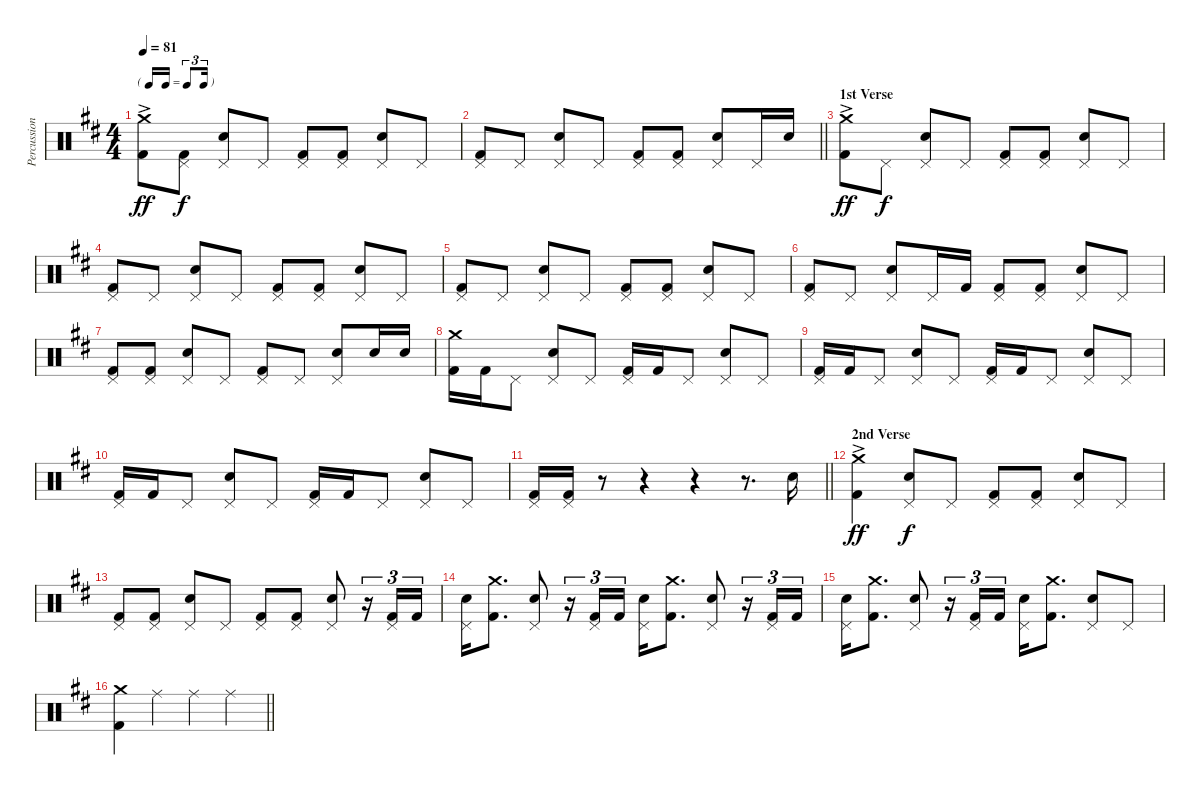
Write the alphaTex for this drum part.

\track ("Percussion" "Percussion") {instrument percussion}
\staff {score}
\articulation defaults
\ts (4 4)
\tf triplet16th
\tempo 81
\clef neutral
\ks d
("Crash medium (hit)"{ac} "Kick (hit) 2").8{dy ff} ("Pedal Hi-Hat (hit)" "Kick (hit) 2").8{dy f} ("Pedal Hi-Hat (hit)" "Snare (hit) 2").8 "Pedal Hi-Hat (hit)".8 ("Pedal Hi-Hat (hit)" "Kick (hit) 2").8 ("Pedal Hi-Hat (hit)" "Kick (hit) 2").8 ("Pedal Hi-Hat (hit)" "Snare (hit) 2").8 "Pedal Hi-Hat (hit)".8 |
\barLineRight lightlight
("Pedal Hi-Hat (hit)" "Kick (hit) 2").8 "Pedal Hi-Hat (hit)".8 ("Pedal Hi-Hat (hit)" "Snare (hit) 2").8 "Pedal Hi-Hat (hit)".8 ("Pedal Hi-Hat (hit)" "Kick (hit) 2").8 ("Pedal Hi-Hat (hit)" "Kick (hit) 2").8 ("Pedal Hi-Hat (hit)" "Snare (hit) 2").8 "Pedal Hi-Hat (hit)".16 "Snare (hit) 2".16 |
\section ("" "1st Verse")
("Crash medium (hit)"{ac} "Kick (hit) 2").8{dy ff} "Pedal Hi-Hat (hit)".8{dy f} ("Pedal Hi-Hat (hit)" "Snare (hit) 2").8 "Pedal Hi-Hat (hit)".8 ("Pedal Hi-Hat (hit)" "Kick (hit) 2").8 ("Pedal Hi-Hat (hit)" "Kick (hit) 2").8 ("Pedal Hi-Hat (hit)" "Snare (hit) 2").8 "Pedal Hi-Hat (hit)".8 |
("Pedal Hi-Hat (hit)" "Kick (hit) 2").8 "Pedal Hi-Hat (hit)".8 ("Pedal Hi-Hat (hit)" "Snare (hit) 2").8 "Pedal Hi-Hat (hit)".8 ("Pedal Hi-Hat (hit)" "Kick (hit) 2").8 ("Pedal Hi-Hat (hit)" "Kick (hit) 2").8 ("Pedal Hi-Hat (hit)" "Snare (hit) 2").8 "Pedal Hi-Hat (hit)".8 |
("Pedal Hi-Hat (hit)" "Kick (hit) 2").8 "Pedal Hi-Hat (hit)".8 ("Pedal Hi-Hat (hit)" "Snare (hit) 2").8 "Pedal Hi-Hat (hit)".8 ("Pedal Hi-Hat (hit)" "Kick (hit) 2").8 ("Pedal Hi-Hat (hit)" "Kick (hit) 2").8 ("Pedal Hi-Hat (hit)" "Snare (hit) 2").8 "Pedal Hi-Hat (hit)".8 |
("Pedal Hi-Hat (hit)" "Kick (hit) 2").8 "Pedal Hi-Hat (hit)".8 ("Pedal Hi-Hat (hit)" "Snare (hit) 2").8 "Pedal Hi-Hat (hit)".16 "Kick (hit) 2".16 ("Pedal Hi-Hat (hit)" "Kick (hit) 2").8 ("Pedal Hi-Hat (hit)" "Kick (hit) 2").8 ("Pedal Hi-Hat (hit)" "Snare (hit) 2").8 "Pedal Hi-Hat (hit)".8 |
("Pedal Hi-Hat (hit)" "Kick (hit) 2").8 ("Pedal Hi-Hat (hit)" "Kick (hit) 2").8 ("Pedal Hi-Hat (hit)" "Snare (hit) 2").8 "Pedal Hi-Hat (hit)".8 ("Pedal Hi-Hat (hit)" "Kick (hit) 2").8 "Pedal Hi-Hat (hit)".8 ("Pedal Hi-Hat (hit)" "Snare (hit) 2").8 "Snare (hit) 2".16 "Snare (hit) 2".16 |
("Crash medium (hit)" "Kick (hit) 2").16 "Kick (hit) 2".16 "Pedal Hi-Hat (hit)".8 ("Pedal Hi-Hat (hit)" "Snare (hit) 2").8 "Pedal Hi-Hat (hit)".8 ("Pedal Hi-Hat (hit)" "Kick (hit) 2").16 "Kick (hit) 2".16 "Pedal Hi-Hat (hit)".8 ("Pedal Hi-Hat (hit)" "Snare (hit) 2").8 "Pedal Hi-Hat (hit)".8 |
("Pedal Hi-Hat (hit)" "Kick (hit) 2").16 "Kick (hit) 2".16 "Pedal Hi-Hat (hit)".8 ("Pedal Hi-Hat (hit)" "Snare (hit) 2").8 "Pedal Hi-Hat (hit)".8 ("Pedal Hi-Hat (hit)" "Kick (hit) 2").16 "Kick (hit) 2".16 "Pedal Hi-Hat (hit)".8 ("Pedal Hi-Hat (hit)" "Snare (hit) 2").8 "Pedal Hi-Hat (hit)".8 |
("Pedal Hi-Hat (hit)" "Kick (hit) 2").16 "Kick (hit) 2".16 "Pedal Hi-Hat (hit)".8 ("Pedal Hi-Hat (hit)" "Snare (hit) 2").8 "Pedal Hi-Hat (hit)".8 ("Pedal Hi-Hat (hit)" "Kick (hit) 2").16 "Kick (hit) 2".16 "Pedal Hi-Hat (hit)".8 ("Pedal Hi-Hat (hit)" "Snare (hit) 2").8 "Pedal Hi-Hat (hit)".8 |
\barLineRight lightlight
("Pedal Hi-Hat (hit)" "Kick (hit) 2").16 ("Pedal Hi-Hat (hit)" "Kick (hit) 2").16 r.8 r.4 r.4 r.8{d} "Snare (hit) 2".16 |
\section ("" "2nd Verse")
("Crash medium (hit)"{ac} "Kick (hit) 2").4{dy ff} ("Pedal Hi-Hat (hit)" "Snare (hit) 2").8{dy f} "Pedal Hi-Hat (hit)".8 ("Pedal Hi-Hat (hit)" "Kick (hit) 2").8 ("Pedal Hi-Hat (hit)" "Kick (hit) 2").8 ("Pedal Hi-Hat (hit)" "Snare (hit) 2").8 "Pedal Hi-Hat (hit)".8 |
("Pedal Hi-Hat (hit)" "Kick (hit) 2").8 ("Pedal Hi-Hat (hit)" "Kick (hit) 2").8 ("Pedal Hi-Hat (hit)" "Snare (hit) 2").8 "Pedal Hi-Hat (hit)".8 ("Pedal Hi-Hat (hit)" "Kick (hit) 2").8 ("Pedal Hi-Hat (hit)" "Kick (hit) 2").8 ("Pedal Hi-Hat (hit)" "Snare (hit) 2").8 r.16{tu (3 2)} ("Pedal Hi-Hat (hit)" "Kick (hit) 2").16{tu (3 2)} "Kick (hit) 2".16{tu (3 2)} |
("Pedal Hi-Hat (hit)" "Snare (hit) 2").16 ("Crash medium (hit)" "Kick (hit) 2").8{d} ("Pedal Hi-Hat (hit)" "Snare (hit) 2").8 r.16{tu (3 2)} ("Pedal Hi-Hat (hit)" "Kick (hit) 2").16{tu (3 2)} "Kick (hit) 2".16{tu (3 2)} ("Pedal Hi-Hat (hit)" "Snare (hit) 2").16 ("Crash medium (hit)" "Kick (hit) 2").8{d} ("Pedal Hi-Hat (hit)" "Snare (hit) 2").8 r.16{tu (3 2)} ("Pedal Hi-Hat (hit)" "Kick (hit) 2").16{tu (3 2)} "Kick (hit) 2".16{tu (3 2)} |
("Pedal Hi-Hat (hit)" "Snare (hit) 2").16 ("Crash medium (hit)" "Kick (hit) 2").8{d} ("Pedal Hi-Hat (hit)" "Snare (hit) 2").8 r.16{tu (3 2)} ("Pedal Hi-Hat (hit)" "Kick (hit) 2").16{tu (3 2)} "Kick (hit) 2".16{tu (3 2)} ("Pedal Hi-Hat (hit)" "Snare (hit) 2").16 ("Crash medium (hit)" "Kick (hit) 2").8{d} ("Pedal Hi-Hat (hit)" "Snare (hit) 2").8 "Pedal Hi-Hat (hit)".8 |
\barLineRight lightlight
("Crash medium (hit)" "Kick (hit) 2").4 "Ride (middle)".4 "Ride (middle)".4 "Ride (middle)".4
